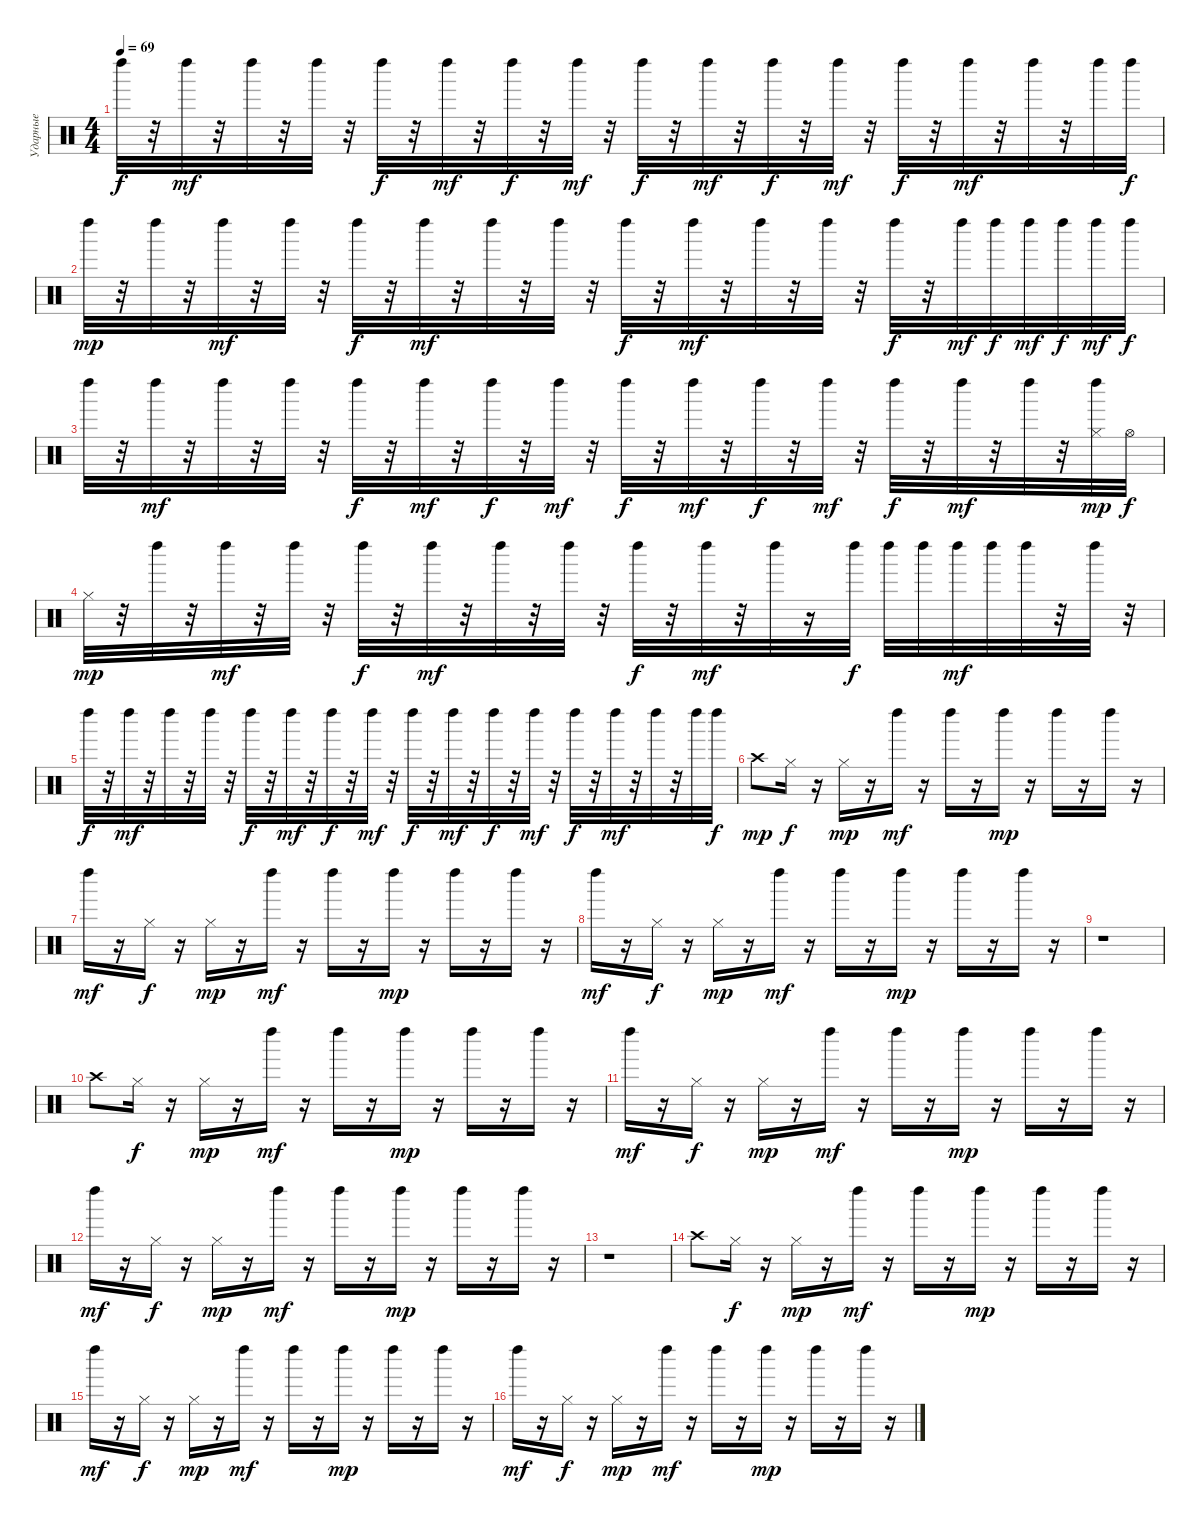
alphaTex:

\track ("Ударные" "Ударные") {instrument percussion}
\staff {score}
\articulation defaults
\ts (4 4)
\tempo 69
\clef neutral
\ks c "Left Maraca (hit)".32{dy f}
r.32 "Left Maraca (hit)".32{dy mf} r.32 "Left Maraca (hit)".32 r.32 "Left Maraca (hit)".32 r.32 "Left Maraca (hit)".32{dy f} r.32 "Left Maraca (hit)".32{dy mf} r.32 "Left Maraca (hit)".32{dy f} r.32 "Left Maraca (hit)".32{dy mf} r.32 "Left Maraca (hit)".32{dy f} r.32 "Left Maraca (hit)".32{dy mf} r.32 "Left Maraca (hit)".32{dy f} r.32 "Left Maraca (hit)".32{dy mf} r.32 "Left Maraca (hit)".32{dy f} r.32 "Left Maraca (hit)".32{dy mf} r.32 "Left Maraca (hit)".32 r.32 "Left Maraca (hit)".32 "Left Maraca (hit)".32{dy f} |
"Left Maraca (hit)".32{dy mp} r.32 "Left Maraca (hit)".32 r.32 "Left Maraca (hit)".32{dy mf} r.32 "Left Maraca (hit)".32 r.32 "Left Maraca (hit)".32{dy f} r.32 "Left Maraca (hit)".32{dy mf} r.32 "Left Maraca (hit)".32 r.32 "Left Maraca (hit)".32 r.32 "Left Maraca (hit)".32{dy f} r.32 "Left Maraca (hit)".32{dy mf} r.32 "Left Maraca (hit)".32 r.32 "Left Maraca (hit)".32 r.32 "Left Maraca (hit)".32{dy f} r.32 "Left Maraca (hit)".32{dy mf} "Left Maraca (hit)".32{dy f} "Left Maraca (hit)".32{dy mf} "Left Maraca (hit)".32{dy f} "Left Maraca (hit)".32{dy mf} "Left Maraca (hit)".32{dy f} |
"Left Maraca (hit)".32 r.32 "Left Maraca (hit)".32{dy mf} r.32 "Left Maraca (hit)".32 r.32 "Left Maraca (hit)".32 r.32 "Left Maraca (hit)".32{dy f} r.32 "Left Maraca (hit)".32{dy mf} r.32 "Left Maraca (hit)".32{dy f} r.32 "Left Maraca (hit)".32{dy mf} r.32 "Left Maraca (hit)".32{dy f} r.32 "Left Maraca (hit)".32{dy mf} r.32 "Left Maraca (hit)".32{dy f} r.32 "Left Maraca (hit)".32{dy mf} r.32 "Left Maraca (hit)".32{dy f} r.32 "Left Maraca (hit)".32{dy mf} r.32 "Left Maraca (hit)".32 r.32 ("Left Maraca (hit)" "Hi-Hat (closed)").32{dy mp} "Hi-Hat (open)".32{dy f} |
"Hi-Hat (closed)".32{dy mp} r.32 "Left Maraca (hit)".32 r.32 "Left Maraca (hit)".32{dy mf} r.32 "Left Maraca (hit)".32 r.32 "Left Maraca (hit)".32{dy f} r.32 "Left Maraca (hit)".32{dy mf} r.32 "Left Maraca (hit)".32 r.32 "Left Maraca (hit)".32 r.32 "Left Maraca (hit)".32{dy f} r.32 "Left Maraca (hit)".32{dy mf} r.32 "Left Maraca (hit)".32 r.16 "Left Maraca (hit)".32{dy f} "Left Maraca (hit)".32 "Left Maraca (hit)".32 "Left Maraca (hit)".32{dy mf} "Left Maraca (hit)".32 "Left Maraca (hit)".32 r.32 "Left Maraca (hit)".32 r.32 |
"Left Maraca (hit)".32{dy f} r.32 "Left Maraca (hit)".32{dy mf} r.32 "Left Maraca (hit)".32 r.32 "Left Maraca (hit)".32 r.32 "Left Maraca (hit)".32{dy f} r.32 "Left Maraca (hit)".32{dy mf} r.32 "Left Maraca (hit)".32{dy f} r.32 "Left Maraca (hit)".32{dy mf} r.32 "Left Maraca (hit)".32{dy f} r.32 "Left Maraca (hit)".32{dy mf} r.32 "Left Maraca (hit)".32{dy f} r.32 "Left Maraca (hit)".32{dy mf} r.32 "Left Maraca (hit)".32{dy f} r.32 "Left Maraca (hit)".32{dy mf} r.32 "Left Maraca (hit)".32 r.32 "Left Maraca (hit)".32 "Left Maraca (hit)".32{dy f} |
"Crash high (hit)".8{dy mp} "Hi-Hat (closed)".16{dy f} r.16 "Hi-Hat (closed)".16{dy mp} r.16 "Left Maraca (hit)".16{dy mf} r.16 "Left Maraca (hit)".16 r.16 "Left Maraca (hit)".16{dy mp} r.16 "Left Maraca (hit)".16 r.16 "Left Maraca (hit)".16 r.16 |
"Left Maraca (hit)".16{dy mf} r.16 "Hi-Hat (closed)".16{dy f} r.16 "Hi-Hat (closed)".16{dy mp} r.16 "Left Maraca (hit)".16{dy mf} r.16 "Left Maraca (hit)".16 r.16 "Left Maraca (hit)".16{dy mp} r.16 "Left Maraca (hit)".16 r.16 "Left Maraca (hit)".16 r.16 |
"Left Maraca (hit)".16{dy mf} r.16 "Hi-Hat (closed)".16{dy f} r.16 "Hi-Hat (closed)".16{dy mp} r.16 "Left Maraca (hit)".16{dy mf} r.16 "Left Maraca (hit)".16 r.16 "Left Maraca (hit)".16{dy mp} r.16 "Left Maraca (hit)".16 r.16 "Left Maraca (hit)".16 r.16 |
r.1 |
"Crash high (hit)".8 "Hi-Hat (closed)".16{dy f} r.16 "Hi-Hat (closed)".16{dy mp} r.16 "Left Maraca (hit)".16{dy mf} r.16 "Left Maraca (hit)".16 r.16 "Left Maraca (hit)".16{dy mp} r.16 "Left Maraca (hit)".16 r.16 "Left Maraca (hit)".16 r.16 |
"Left Maraca (hit)".16{dy mf} r.16 "Hi-Hat (closed)".16{dy f} r.16 "Hi-Hat (closed)".16{dy mp} r.16 "Left Maraca (hit)".16{dy mf} r.16 "Left Maraca (hit)".16 r.16 "Left Maraca (hit)".16{dy mp} r.16 "Left Maraca (hit)".16 r.16 "Left Maraca (hit)".16 r.16 |
"Left Maraca (hit)".16{dy mf} r.16 "Hi-Hat (closed)".16{dy f} r.16 "Hi-Hat (closed)".16{dy mp} r.16 "Left Maraca (hit)".16{dy mf} r.16 "Left Maraca (hit)".16 r.16 "Left Maraca (hit)".16{dy mp} r.16 "Left Maraca (hit)".16 r.16 "Left Maraca (hit)".16 r.16 |
r.1 |
"Crash high (hit)".8 "Hi-Hat (closed)".16{dy f} r.16 "Hi-Hat (closed)".16{dy mp} r.16 "Left Maraca (hit)".16{dy mf} r.16 "Left Maraca (hit)".16 r.16 "Left Maraca (hit)".16{dy mp} r.16 "Left Maraca (hit)".16 r.16 "Left Maraca (hit)".16 r.16 |
"Left Maraca (hit)".16{dy mf volume 16 balance 8} r.16 "Hi-Hat (closed)".16{dy f} r.16 "Hi-Hat (closed)".16{dy mp} r.16 "Left Maraca (hit)".16{dy mf} r.16 "Left Maraca (hit)".16 r.16 "Left Maraca (hit)".16{dy mp} r.16 "Left Maraca (hit)".16 r.16 "Left Maraca (hit)".16 r.16 |
"Left Maraca (hit)".16{dy mf} r.16 "Hi-Hat (closed)".16{dy f} r.16 "Hi-Hat (closed)".16{dy mp} r.16 "Left Maraca (hit)".16{dy mf} r.16 "Left Maraca (hit)".16 r.16 "Left Maraca (hit)".16{dy mp} r.16 "Left Maraca (hit)".16 r.16 "Left Maraca (hit)".16 r.16
